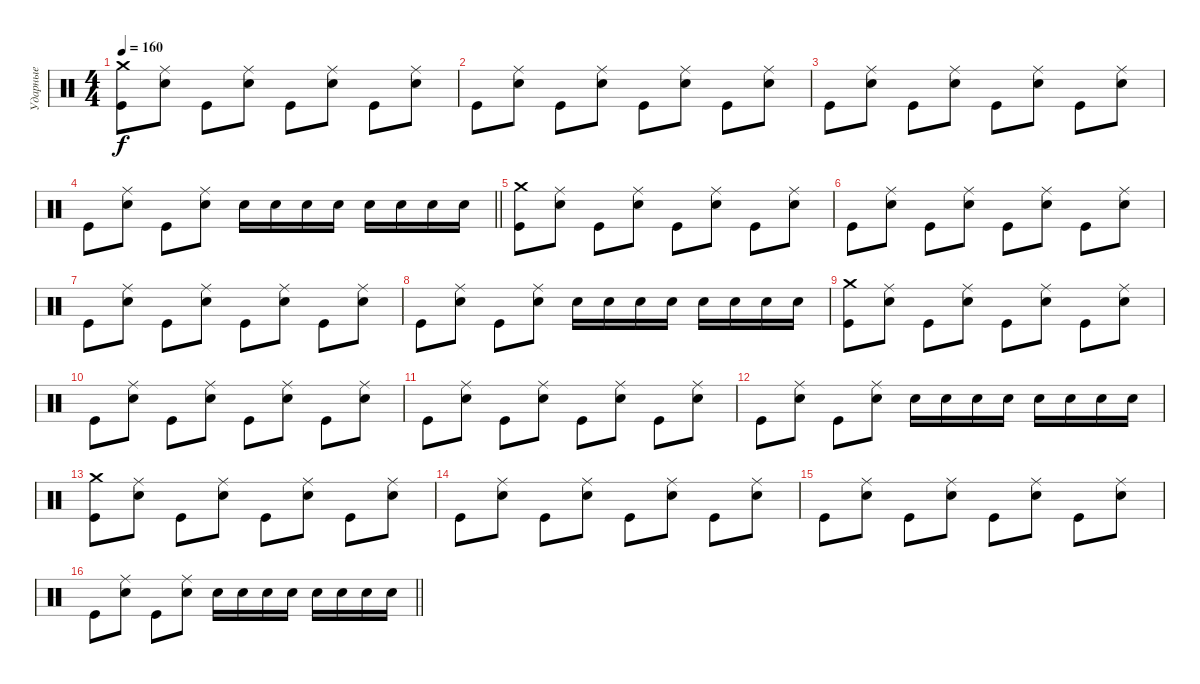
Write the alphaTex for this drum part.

\track ("Ударные" "Ударные") {instrument percussion}
\staff {score}
\articulation defaults
\ts (4 4)
\tempo 160
\clef neutral
\ks c
("Crash medium (hit)" "Kick (hit)").8{dy f} ("Ride (middle)" "Electric Snare (hit)").8 "Kick (hit)".8 ("Ride (middle)" "Electric Snare (hit)").8 "Kick (hit)".8 ("Ride (middle)" "Electric Snare (hit)").8 "Kick (hit)".8 ("Ride (middle)" "Electric Snare (hit)").8 |
"Kick (hit)".8 ("Ride (middle)" "Electric Snare (hit)").8 "Kick (hit)".8 ("Ride (middle)" "Electric Snare (hit)").8 "Kick (hit)".8 ("Ride (middle)" "Electric Snare (hit)").8 "Kick (hit)".8 ("Ride (middle)" "Electric Snare (hit)").8 |
"Kick (hit)".8 ("Ride (middle)" "Electric Snare (hit)").8 "Kick (hit)".8 ("Ride (middle)" "Electric Snare (hit)").8 "Kick (hit)".8 ("Ride (middle)" "Electric Snare (hit)").8 "Kick (hit)".8 ("Ride (middle)" "Electric Snare (hit)").8 |
\barLineRight lightlight "Kick (hit)".8
("Ride (middle)" "Electric Snare (hit)").8 "Kick (hit)".8 ("Ride (middle)" "Electric Snare (hit)").8 "Electric Snare (hit)".16 "Electric Snare (hit)".16 "Electric Snare (hit)".16 "Electric Snare (hit)".16 "Electric Snare (hit)".16 "Electric Snare (hit)".16 "Electric Snare (hit)".16 "Electric Snare (hit)".16 |
("Crash medium (hit)" "Kick (hit)").8 ("Ride (middle)" "Electric Snare (hit)").8 "Kick (hit)".8 ("Ride (middle)" "Electric Snare (hit)").8 "Kick (hit)".8 ("Ride (middle)" "Electric Snare (hit)").8 "Kick (hit)".8 ("Ride (middle)" "Electric Snare (hit)").8 |
"Kick (hit)".8 ("Ride (middle)" "Electric Snare (hit)").8 "Kick (hit)".8 ("Ride (middle)" "Electric Snare (hit)").8 "Kick (hit)".8 ("Ride (middle)" "Electric Snare (hit)").8 "Kick (hit)".8 ("Ride (middle)" "Electric Snare (hit)").8 |
"Kick (hit)".8 ("Ride (middle)" "Electric Snare (hit)").8 "Kick (hit)".8 ("Ride (middle)" "Electric Snare (hit)").8 "Kick (hit)".8 ("Ride (middle)" "Electric Snare (hit)").8 "Kick (hit)".8 ("Ride (middle)" "Electric Snare (hit)").8 |
"Kick (hit)".8 ("Ride (middle)" "Electric Snare (hit)").8 "Kick (hit)".8 ("Ride (middle)" "Electric Snare (hit)").8 "Electric Snare (hit)".16 "Electric Snare (hit)".16 "Electric Snare (hit)".16 "Electric Snare (hit)".16 "Electric Snare (hit)".16 "Electric Snare (hit)".16 "Electric Snare (hit)".16 "Electric Snare (hit)".16 |
("Crash medium (hit)" "Kick (hit)").8 ("Ride (middle)" "Electric Snare (hit)").8 "Kick (hit)".8 ("Ride (middle)" "Electric Snare (hit)").8 "Kick (hit)".8 ("Ride (middle)" "Electric Snare (hit)").8 "Kick (hit)".8 ("Ride (middle)" "Electric Snare (hit)").8 |
"Kick (hit)".8 ("Ride (middle)" "Electric Snare (hit)").8 "Kick (hit)".8 ("Ride (middle)" "Electric Snare (hit)").8 "Kick (hit)".8 ("Ride (middle)" "Electric Snare (hit)").8 "Kick (hit)".8 ("Ride (middle)" "Electric Snare (hit)").8 |
"Kick (hit)".8 ("Ride (middle)" "Electric Snare (hit)").8 "Kick (hit)".8 ("Ride (middle)" "Electric Snare (hit)").8 "Kick (hit)".8 ("Ride (middle)" "Electric Snare (hit)").8 "Kick (hit)".8 ("Ride (middle)" "Electric Snare (hit)").8 |
"Kick (hit)".8 ("Ride (middle)" "Electric Snare (hit)").8 "Kick (hit)".8 ("Ride (middle)" "Electric Snare (hit)").8 "Electric Snare (hit)".16 "Electric Snare (hit)".16 "Electric Snare (hit)".16 "Electric Snare (hit)".16 "Electric Snare (hit)".16 "Electric Snare (hit)".16 "Electric Snare (hit)".16 "Electric Snare (hit)".16 |
("Crash medium (hit)" "Kick (hit)").8 ("Ride (middle)" "Electric Snare (hit)").8 "Kick (hit)".8 ("Ride (middle)" "Electric Snare (hit)").8 "Kick (hit)".8 ("Ride (middle)" "Electric Snare (hit)").8 "Kick (hit)".8 ("Ride (middle)" "Electric Snare (hit)").8 |
"Kick (hit)".8 ("Ride (middle)" "Electric Snare (hit)").8 "Kick (hit)".8 ("Ride (middle)" "Electric Snare (hit)").8 "Kick (hit)".8 ("Ride (middle)" "Electric Snare (hit)").8 "Kick (hit)".8 ("Ride (middle)" "Electric Snare (hit)").8 |
"Kick (hit)".8 ("Ride (middle)" "Electric Snare (hit)").8 "Kick (hit)".8 ("Ride (middle)" "Electric Snare (hit)").8 "Kick (hit)".8 ("Ride (middle)" "Electric Snare (hit)").8 "Kick (hit)".8 ("Ride (middle)" "Electric Snare (hit)").8 |
\barLineRight lightlight "Kick (hit)".8
("Ride (middle)" "Electric Snare (hit)").8 "Kick (hit)".8 ("Ride (middle)" "Electric Snare (hit)").8 "Electric Snare (hit)".16 "Electric Snare (hit)".16 "Electric Snare (hit)".16 "Electric Snare (hit)".16 "Electric Snare (hit)".16 "Electric Snare (hit)".16 "Electric Snare (hit)".16 "Electric Snare (hit)".16
